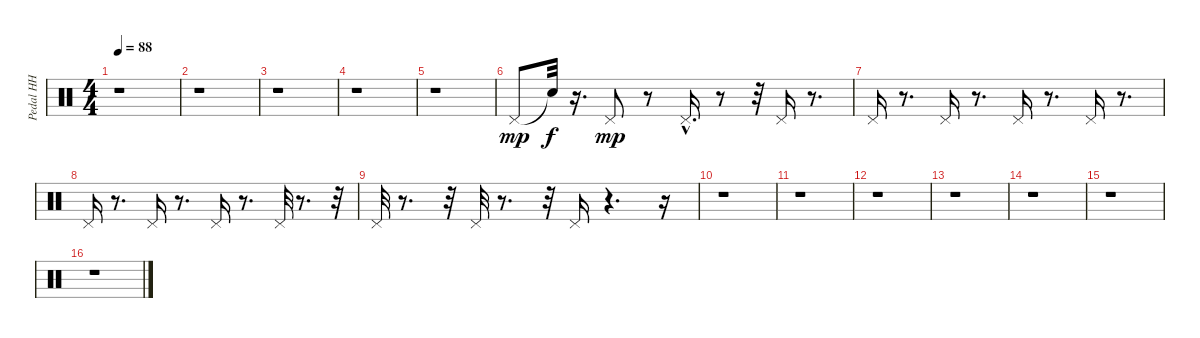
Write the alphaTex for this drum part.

\track ("Pedal HH" "Pedal HH") {instrument percussion}
\staff {score}
\articulation defaults
\ts (4 4)
\tempo 88
\clef neutral
\ks c
r.1{dy mp} |
r.1 |
r.1 |
r.1 |
r.1 |
"Pedal Hi-Hat (hit)".8 "Snare (hit)"{t}.32{dy f} r.16{d} "Pedal Hi-Hat (hit)".8{dy mp} r.8 "Pedal Hi-Hat (hit)"{hac}.16{d} r.8 r.32 "Pedal Hi-Hat (hit)".16 r.8{d} |
"Pedal Hi-Hat (hit)".16 r.8{d} "Pedal Hi-Hat (hit)".16 r.8{d} "Pedal Hi-Hat (hit)".16 r.8{d} "Pedal Hi-Hat (hit)".16 r.8{d} |
"Pedal Hi-Hat (hit)".16 r.8{d} "Pedal Hi-Hat (hit)".16 r.8{d} "Pedal Hi-Hat (hit)".16 r.8{d} "Pedal Hi-Hat (hit)".32 r.8{d} r.32 |
"Pedal Hi-Hat (hit)".32 r.8{d} r.32 "Pedal Hi-Hat (hit)".32 r.8{d} r.32 "Pedal Hi-Hat (hit)".16 r.4{d} r.16 |
r.1 |
r.1 |
r.1 |
r.1 |
r.1 |
r.1 |
r.1
